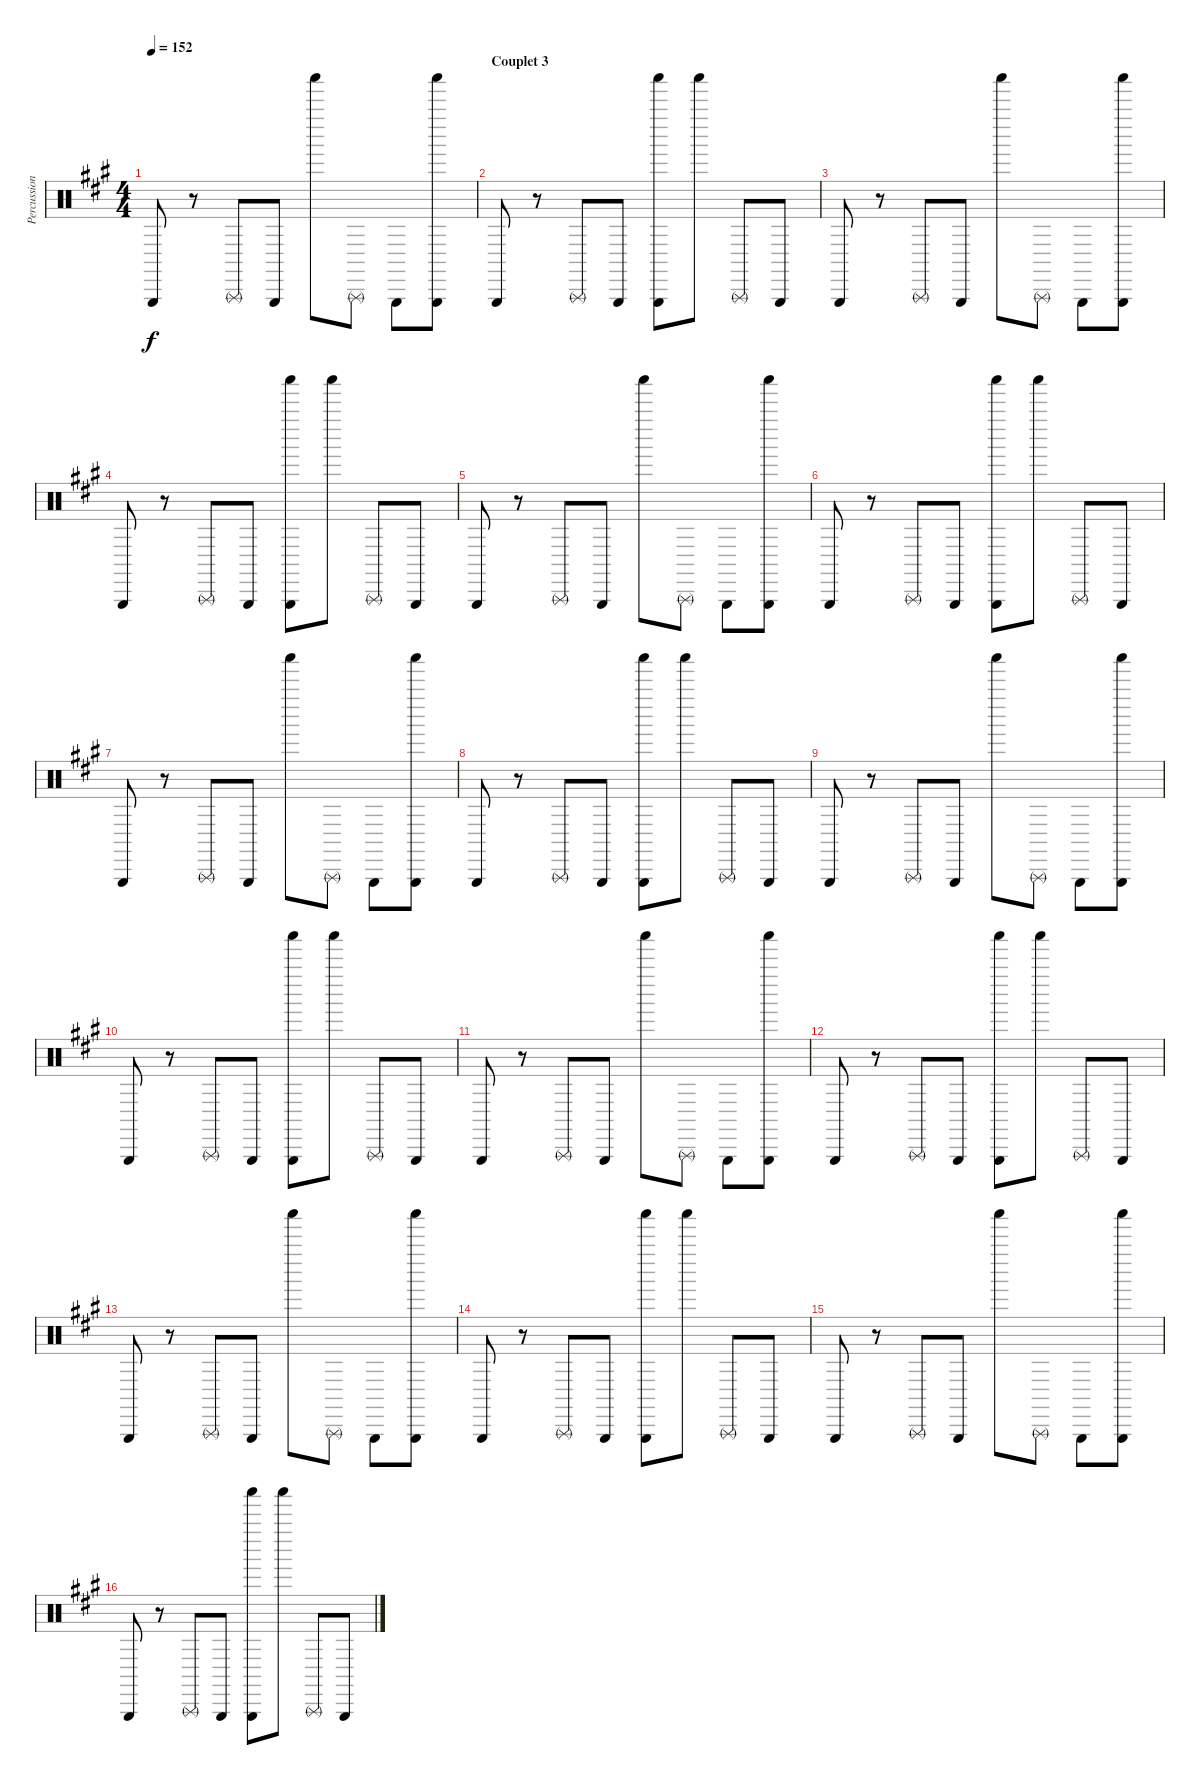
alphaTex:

\track ("Percussions" "Percussion") {instrument percussion}
\staff {score}
\articulation defaults
\ts (4 4)
\tempo 152
\clef neutral
\ks a "Triangle (hit)".8{dy f}
r.8 "Triangle (rnute)".8 "Triangle (hit)".8 "Shaker (hit)".8 "Triangle (rnute)".8 "Triangle (hit)".8 ("Triangle (hit)" "Shaker (hit)").8 |
\section ("" "Couplet 3")
"Triangle (hit)".8 r.8 "Triangle (rnute)".8 "Triangle (hit)".8 ("Triangle (hit)" "Shaker (hit)").8 "Shaker (hit)".8 "Triangle (rnute)".8 "Triangle (hit)".8 |
"Triangle (hit)".8 r.8 "Triangle (rnute)".8 "Triangle (hit)".8 "Shaker (hit)".8 "Triangle (rnute)".8 "Triangle (hit)".8 ("Triangle (hit)" "Shaker (hit)").8 |
"Triangle (hit)".8 r.8 "Triangle (rnute)".8 "Triangle (hit)".8 ("Triangle (hit)" "Shaker (hit)").8 "Shaker (hit)".8 "Triangle (rnute)".8 "Triangle (hit)".8 |
"Triangle (hit)".8 r.8 "Triangle (rnute)".8 "Triangle (hit)".8 "Shaker (hit)".8 "Triangle (rnute)".8 "Triangle (hit)".8 ("Triangle (hit)" "Shaker (hit)").8 |
"Triangle (hit)".8 r.8 "Triangle (rnute)".8 "Triangle (hit)".8 ("Triangle (hit)" "Shaker (hit)").8 "Shaker (hit)".8 "Triangle (rnute)".8 "Triangle (hit)".8 |
"Triangle (hit)".8 r.8 "Triangle (rnute)".8 "Triangle (hit)".8 "Shaker (hit)".8 "Triangle (rnute)".8 "Triangle (hit)".8 ("Triangle (hit)" "Shaker (hit)").8 |
"Triangle (hit)".8 r.8 "Triangle (rnute)".8 "Triangle (hit)".8 ("Triangle (hit)" "Shaker (hit)").8 "Shaker (hit)".8 "Triangle (rnute)".8 "Triangle (hit)".8 |
"Triangle (hit)".8 r.8 "Triangle (rnute)".8 "Triangle (hit)".8 "Shaker (hit)".8 "Triangle (rnute)".8 "Triangle (hit)".8 ("Triangle (hit)" "Shaker (hit)").8 |
"Triangle (hit)".8 r.8 "Triangle (rnute)".8 "Triangle (hit)".8 ("Triangle (hit)" "Shaker (hit)").8 "Shaker (hit)".8 "Triangle (rnute)".8 "Triangle (hit)".8 |
"Triangle (hit)".8 r.8 "Triangle (rnute)".8 "Triangle (hit)".8 "Shaker (hit)".8 "Triangle (rnute)".8 "Triangle (hit)".8 ("Triangle (hit)" "Shaker (hit)").8 |
"Triangle (hit)".8 r.8 "Triangle (rnute)".8 "Triangle (hit)".8 ("Triangle (hit)" "Shaker (hit)").8 "Shaker (hit)".8 "Triangle (rnute)".8 "Triangle (hit)".8 |
"Triangle (hit)".8 r.8 "Triangle (rnute)".8 "Triangle (hit)".8 "Shaker (hit)".8 "Triangle (rnute)".8 "Triangle (hit)".8 ("Triangle (hit)" "Shaker (hit)").8 |
"Triangle (hit)".8 r.8 "Triangle (rnute)".8 "Triangle (hit)".8 ("Triangle (hit)" "Shaker (hit)").8 "Shaker (hit)".8 "Triangle (rnute)".8 "Triangle (hit)".8 |
"Triangle (hit)".8 r.8 "Triangle (rnute)".8 "Triangle (hit)".8 "Shaker (hit)".8 "Triangle (rnute)".8 "Triangle (hit)".8 ("Triangle (hit)" "Shaker (hit)").8 |
"Triangle (hit)".8 r.8 "Triangle (rnute)".8 "Triangle (hit)".8 ("Triangle (hit)" "Shaker (hit)").8 "Shaker (hit)".8 "Triangle (rnute)".8 "Triangle (hit)".8
